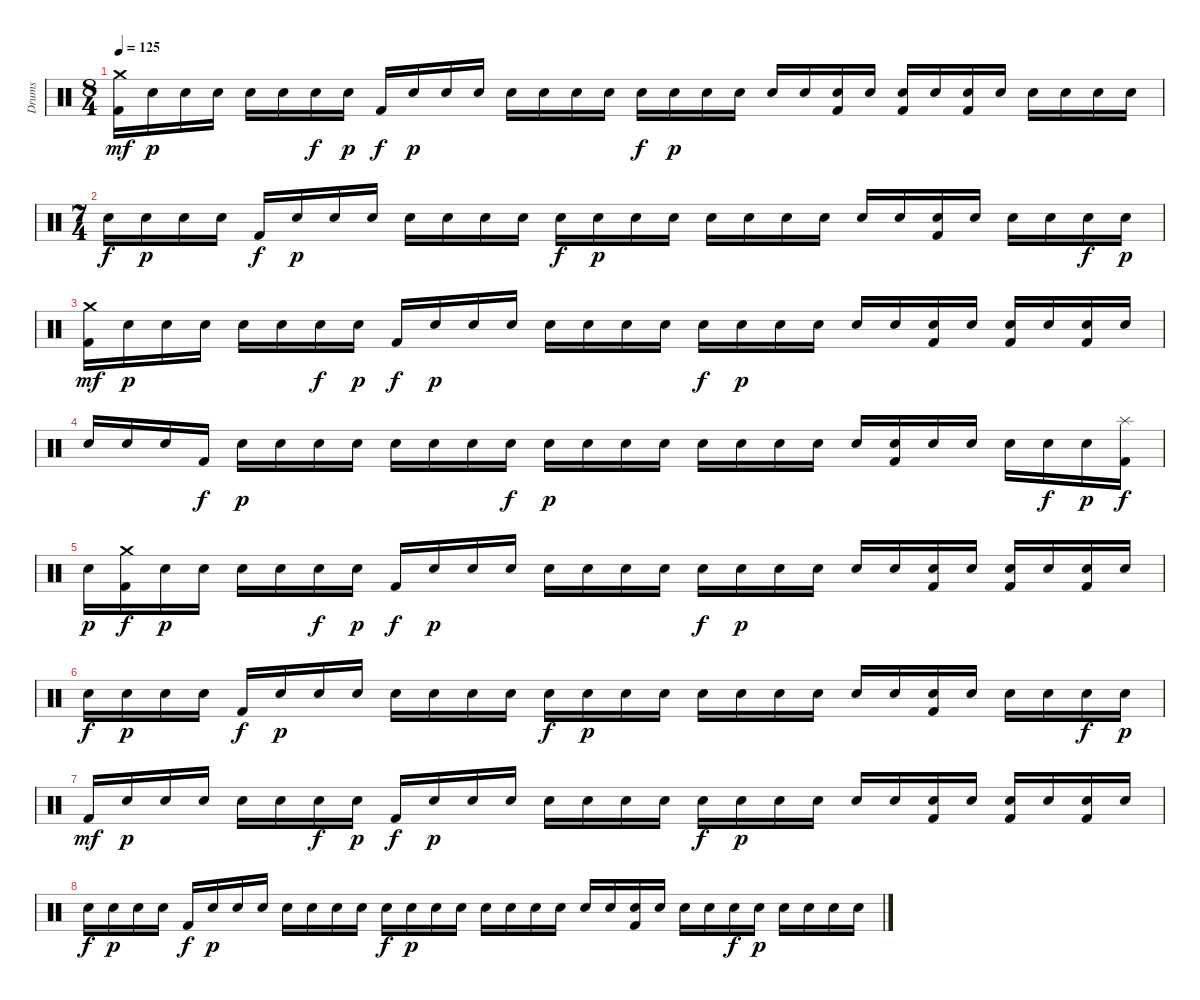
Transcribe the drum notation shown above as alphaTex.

\track ("Drums " "Drums ") {instrument percussion}
\staff {score}
\articulation defaults
\ts (8 4)
\tempo 125
\clef neutral
\ks c
("Crash medium (hit)" "Kick (hit) 2").16{dy mf} "Electric Snare (hit)".16{dy p} "Electric Snare (hit)".16 "Electric Snare (hit)".16 "Electric Snare (hit)".16 "Electric Snare (hit)".16 "Electric Snare (hit)".16{dy f} "Electric Snare (hit)".16{dy p} "Kick (hit) 2".16{dy f} "Electric Snare (hit)".16{dy p} "Electric Snare (hit)".16 "Electric Snare (hit)".16 "Electric Snare (hit)".16 "Electric Snare (hit)".16 "Electric Snare (hit)".16 "Electric Snare (hit)".16 "Electric Snare (hit)".16{dy f} "Electric Snare (hit)".16{dy p} "Electric Snare (hit)".16 "Electric Snare (hit)".16 "Electric Snare (hit)".16 "Electric Snare (hit)".16 ("Electric Snare (hit)" "Kick (hit) 2").16 "Electric Snare (hit)".16 ("Electric Snare (hit)" "Kick (hit) 2").16 "Electric Snare (hit)".16 ("Electric Snare (hit)" "Kick (hit) 2").16 "Electric Snare (hit)".16 "Electric Snare (hit)".16 "Electric Snare (hit)".16 "Electric Snare (hit)".16 "Electric Snare (hit)".16 |
\ts (7 4)
"Electric Snare (hit)".16{dy f} "Electric Snare (hit)".16{dy p} "Electric Snare (hit)".16 "Electric Snare (hit)".16 "Kick (hit) 2".16{dy f} "Electric Snare (hit)".16{dy p} "Electric Snare (hit)".16 "Electric Snare (hit)".16 "Electric Snare (hit)".16 "Electric Snare (hit)".16 "Electric Snare (hit)".16 "Electric Snare (hit)".16 "Electric Snare (hit)".16{dy f} "Electric Snare (hit)".16{dy p} "Electric Snare (hit)".16 "Electric Snare (hit)".16 "Electric Snare (hit)".16 "Electric Snare (hit)".16 "Electric Snare (hit)".16 "Electric Snare (hit)".16 "Electric Snare (hit)".16 "Electric Snare (hit)".16 ("Electric Snare (hit)" "Kick (hit) 2").16 "Electric Snare (hit)".16 "Electric Snare (hit)".16 "Electric Snare (hit)".16 "Electric Snare (hit)".16{dy f} "Electric Snare (hit)".16{dy p} |
("Crash medium (hit)" "Kick (hit) 2").16{dy mf} "Electric Snare (hit)".16{dy p} "Electric Snare (hit)".16 "Electric Snare (hit)".16 "Electric Snare (hit)".16 "Electric Snare (hit)".16 "Electric Snare (hit)".16{dy f} "Electric Snare (hit)".16{dy p} "Kick (hit) 2".16{dy f} "Electric Snare (hit)".16{dy p} "Electric Snare (hit)".16 "Electric Snare (hit)".16 "Electric Snare (hit)".16 "Electric Snare (hit)".16 "Electric Snare (hit)".16 "Electric Snare (hit)".16 "Electric Snare (hit)".16{dy f} "Electric Snare (hit)".16{dy p} "Electric Snare (hit)".16 "Electric Snare (hit)".16 "Electric Snare (hit)".16 "Electric Snare (hit)".16 ("Electric Snare (hit)" "Kick (hit) 2").16 "Electric Snare (hit)".16 ("Electric Snare (hit)" "Kick (hit) 2").16 "Electric Snare (hit)".16 ("Electric Snare (hit)" "Kick (hit) 2").16 "Electric Snare (hit)".16 |
"Electric Snare (hit)".16 "Electric Snare (hit)".16 "Electric Snare (hit)".16 "Kick (hit) 2".16{dy f} "Electric Snare (hit)".16{dy p} "Electric Snare (hit)".16 "Electric Snare (hit)".16 "Electric Snare (hit)".16 "Electric Snare (hit)".16 "Electric Snare (hit)".16 "Electric Snare (hit)".16 "Electric Snare (hit)".16{dy f} "Electric Snare (hit)".16{dy p} "Electric Snare (hit)".16 "Electric Snare (hit)".16 "Electric Snare (hit)".16 "Electric Snare (hit)".16 "Electric Snare (hit)".16 "Electric Snare (hit)".16 "Electric Snare (hit)".16 "Electric Snare (hit)".16 ("Electric Snare (hit)" "Kick (hit) 2").16 "Electric Snare (hit)".16 "Electric Snare (hit)".16 "Electric Snare (hit)".16 "Electric Snare (hit)".16{dy f} "Electric Snare (hit)".16{dy p} ("Splash (hit)" "Kick (hit) 2").16{dy f} |
"Electric Snare (hit)".16{dy p} ("Crash medium (hit)" "Kick (hit) 2").16{dy f} "Electric Snare (hit)".16{dy p} "Electric Snare (hit)".16 "Electric Snare (hit)".16 "Electric Snare (hit)".16 "Electric Snare (hit)".16{dy f} "Electric Snare (hit)".16{dy p} "Kick (hit) 2".16{dy f} "Electric Snare (hit)".16{dy p} "Electric Snare (hit)".16 "Electric Snare (hit)".16 "Electric Snare (hit)".16 "Electric Snare (hit)".16 "Electric Snare (hit)".16 "Electric Snare (hit)".16 "Electric Snare (hit)".16{dy f} "Electric Snare (hit)".16{dy p} "Electric Snare (hit)".16 "Electric Snare (hit)".16 "Electric Snare (hit)".16 "Electric Snare (hit)".16 ("Electric Snare (hit)" "Kick (hit) 2").16 "Electric Snare (hit)".16 ("Electric Snare (hit)" "Kick (hit) 2").16 "Electric Snare (hit)".16 ("Electric Snare (hit)" "Kick (hit) 2").16 "Electric Snare (hit)".16 |
"Electric Snare (hit)".16{dy f} "Electric Snare (hit)".16{dy p} "Electric Snare (hit)".16 "Electric Snare (hit)".16 "Kick (hit) 2".16{dy f} "Electric Snare (hit)".16{dy p} "Electric Snare (hit)".16 "Electric Snare (hit)".16 "Electric Snare (hit)".16 "Electric Snare (hit)".16 "Electric Snare (hit)".16 "Electric Snare (hit)".16 "Electric Snare (hit)".16{dy f} "Electric Snare (hit)".16{dy p} "Electric Snare (hit)".16 "Electric Snare (hit)".16 "Electric Snare (hit)".16 "Electric Snare (hit)".16 "Electric Snare (hit)".16 "Electric Snare (hit)".16 "Electric Snare (hit)".16 "Electric Snare (hit)".16 ("Electric Snare (hit)" "Kick (hit) 2").16 "Electric Snare (hit)".16 "Electric Snare (hit)".16 "Electric Snare (hit)".16 "Electric Snare (hit)".16{dy f} "Electric Snare (hit)".16{dy p} |
"Kick (hit) 2".16{dy mf} "Electric Snare (hit)".16{dy p} "Electric Snare (hit)".16 "Electric Snare (hit)".16 "Electric Snare (hit)".16 "Electric Snare (hit)".16 "Electric Snare (hit)".16{dy f} "Electric Snare (hit)".16{dy p} "Kick (hit) 2".16{dy f} "Electric Snare (hit)".16{dy p} "Electric Snare (hit)".16 "Electric Snare (hit)".16 "Electric Snare (hit)".16 "Electric Snare (hit)".16 "Electric Snare (hit)".16 "Electric Snare (hit)".16 "Electric Snare (hit)".16{dy f} "Electric Snare (hit)".16{dy p} "Electric Snare (hit)".16 "Electric Snare (hit)".16 "Electric Snare (hit)".16 "Electric Snare (hit)".16 ("Electric Snare (hit)" "Kick (hit) 2").16 "Electric Snare (hit)".16 ("Electric Snare (hit)" "Kick (hit) 2").16 "Electric Snare (hit)".16 ("Electric Snare (hit)" "Kick (hit) 2").16 "Electric Snare (hit)".16 |
"Electric Snare (hit)".16{dy f} "Electric Snare (hit)".16{dy p} "Electric Snare (hit)".16 "Electric Snare (hit)".16 "Kick (hit) 2".16{dy f} "Electric Snare (hit)".16{dy p} "Electric Snare (hit)".16 "Electric Snare (hit)".16 "Electric Snare (hit)".16 "Electric Snare (hit)".16 "Electric Snare (hit)".16 "Electric Snare (hit)".16 "Electric Snare (hit)".16{dy f} "Electric Snare (hit)".16{dy p} "Electric Snare (hit)".16 "Electric Snare (hit)".16 "Electric Snare (hit)".16 "Electric Snare (hit)".16 "Electric Snare (hit)".16 "Electric Snare (hit)".16 "Electric Snare (hit)".16 "Electric Snare (hit)".16 ("Electric Snare (hit)" "Kick (hit) 2").16 "Electric Snare (hit)".16 "Electric Snare (hit)".16 "Electric Snare (hit)".16 "Electric Snare (hit)".16{dy f} "Electric Snare (hit)".16{dy p} "Electric Snare (hit)".16 "Electric Snare (hit)".16 "Electric Snare (hit)".16 "Electric Snare (hit)".16
